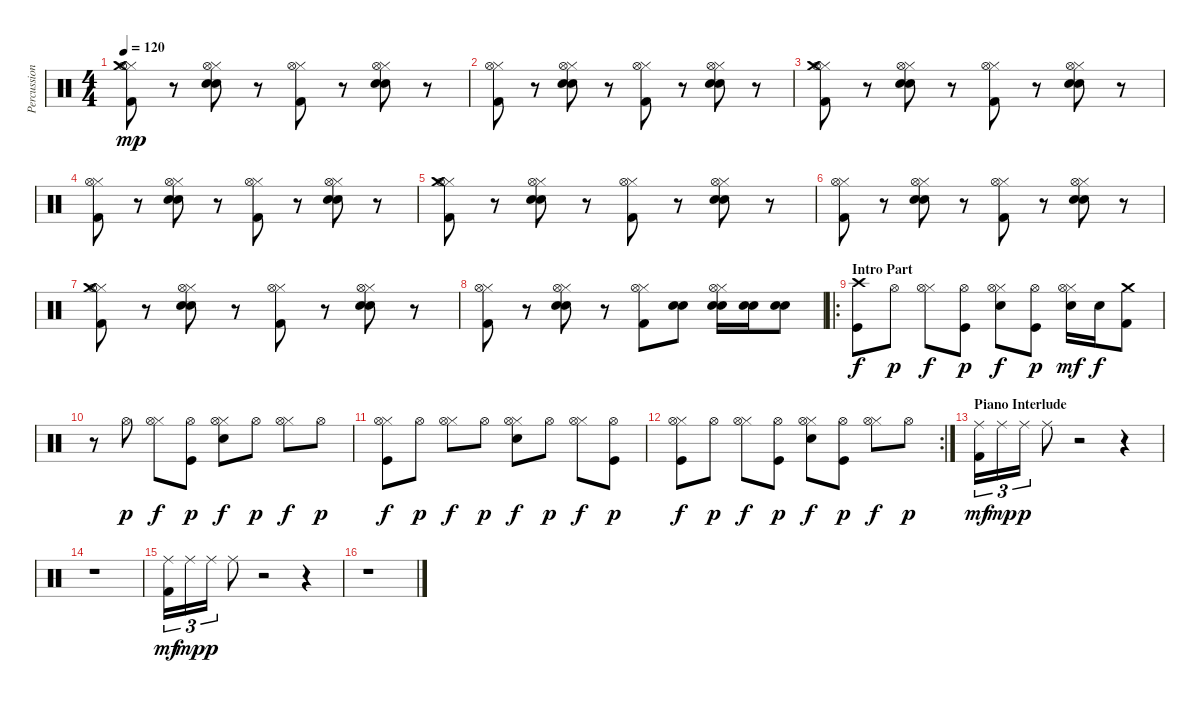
\track ("Percussion" "Percussion") {instrument percussion}
\staff {score}
\articulation defaults
\ts (4 4)
\tempo 120
\clef neutral
\ks c
("Hi-Hat (closed)" "Hi-Hat (open)" "Crash medium (hit)" "Kick (hit) 2").8{dy mp} r.8 ("Hi-Hat (closed)" "Hi-Hat (open)" "Electric Snare (hit)" "Snare (hit) 2").8 r.8 ("Hi-Hat (closed)" "Hi-Hat (open)" "Kick (hit) 2").8 r.8 ("Hi-Hat (closed)" "Hi-Hat (open)" "Electric Snare (hit)" "Snare (hit) 2").8 r.8 |
("Hi-Hat (closed)" "Hi-Hat (open)" "Kick (hit) 2").8 r.8 ("Hi-Hat (closed)" "Hi-Hat (open)" "Electric Snare (hit)" "Snare (hit) 2").8 r.8 ("Hi-Hat (closed)" "Hi-Hat (open)" "Kick (hit) 2").8 r.8 ("Hi-Hat (closed)" "Hi-Hat (open)" "Electric Snare (hit)" "Snare (hit) 2").8 r.8 |
("Hi-Hat (closed)" "Hi-Hat (open)" "Crash medium (hit)" "Kick (hit) 2").8 r.8 ("Hi-Hat (closed)" "Hi-Hat (open)" "Electric Snare (hit)" "Snare (hit) 2").8 r.8 ("Hi-Hat (closed)" "Hi-Hat (open)" "Kick (hit) 2").8 r.8 ("Hi-Hat (closed)" "Hi-Hat (open)" "Electric Snare (hit)" "Snare (hit) 2").8 r.8 |
("Hi-Hat (closed)" "Hi-Hat (open)" "Kick (hit) 2").8 r.8 ("Hi-Hat (closed)" "Hi-Hat (open)" "Electric Snare (hit)" "Snare (hit) 2").8 r.8 ("Hi-Hat (closed)" "Hi-Hat (open)" "Kick (hit) 2").8 r.8 ("Hi-Hat (closed)" "Hi-Hat (open)" "Electric Snare (hit)" "Snare (hit) 2").8 r.8 |
("Hi-Hat (closed)" "Hi-Hat (open)" "Crash medium (hit)" "Kick (hit) 2").8 r.8 ("Hi-Hat (closed)" "Hi-Hat (open)" "Electric Snare (hit)" "Snare (hit) 2").8 r.8 ("Hi-Hat (closed)" "Hi-Hat (open)" "Kick (hit) 2").8 r.8 ("Hi-Hat (closed)" "Hi-Hat (open)" "Electric Snare (hit)" "Snare (hit) 2").8 r.8 |
("Hi-Hat (closed)" "Hi-Hat (open)" "Kick (hit) 2").8 r.8 ("Hi-Hat (closed)" "Hi-Hat (open)" "Electric Snare (hit)" "Snare (hit) 2").8 r.8 ("Hi-Hat (closed)" "Hi-Hat (open)" "Kick (hit) 2").8 r.8 ("Hi-Hat (closed)" "Hi-Hat (open)" "Electric Snare (hit)" "Snare (hit) 2").8 r.8 |
("Hi-Hat (closed)" "Hi-Hat (open)" "Crash medium (hit)" "Kick (hit) 2").8 r.8 ("Hi-Hat (closed)" "Hi-Hat (open)" "Electric Snare (hit)" "Snare (hit) 2").8 r.8 ("Hi-Hat (closed)" "Hi-Hat (open)" "Kick (hit) 2").8 r.8 ("Hi-Hat (closed)" "Hi-Hat (open)" "Electric Snare (hit)" "Snare (hit) 2").8 r.8 |
("Hi-Hat (closed)" "Hi-Hat (open)" "Kick (hit) 2").8 r.8 ("Hi-Hat (closed)" "Hi-Hat (open)" "Electric Snare (hit)" "Snare (hit) 2").8 r.8 ("Hi-Hat (closed)" "Hi-Hat (open)" "Kick (hit) 2").8 ("Electric Snare (hit)" "Snare (hit) 2").8 ("Hi-Hat (closed)" "Hi-Hat (open)" "Electric Snare (hit)" "Snare (hit) 2").16 ("Electric Snare (hit)" "Snare (hit) 2").16 ("Electric Snare (hit)" "Snare (hit) 2").8 |
\ro
\section ("" "Intro Part")
("Crash high (hit)" "Kick (hit)").8{dy f} "Hi-Hat (open)".8{dy p} ("Hi-Hat (closed)" "Hi-Hat (open)").8{dy f} ("Hi-Hat (open)" "Kick (hit)").8{dy p} ("Hi-Hat (closed)" "Hi-Hat (open)" "Snare (hit) 2").8{dy f} ("Hi-Hat (open)" "Kick (hit)").8{dy p} ("Hi-Hat (closed)" "Hi-Hat (open)" "Snare (hit) 2").16{dy mf} "Snare (hit) 2".16{dy f} ("Crash medium (hit)" "Kick (hit) 2").8 |
r.8 "Hi-Hat (open)".8{dy p} ("Hi-Hat (closed)" "Hi-Hat (open)").8{dy f} ("Hi-Hat (open)" "Kick (hit)").8{dy p} ("Hi-Hat (closed)" "Hi-Hat (open)" "Snare (hit) 2").8{dy f} "Hi-Hat (open)".8{dy p} ("Hi-Hat (closed)" "Hi-Hat (open)").8{dy f} "Hi-Hat (open)".8{dy p} |
("Hi-Hat (closed)" "Hi-Hat (open)" "Kick (hit)").8{dy f} "Hi-Hat (open)".8{dy p} ("Hi-Hat (closed)" "Hi-Hat (open)").8{dy f} "Hi-Hat (open)".8{dy p} ("Hi-Hat (closed)" "Hi-Hat (open)" "Snare (hit) 2").8{dy f} "Hi-Hat (open)".8{dy p} ("Hi-Hat (closed)" "Hi-Hat (open)").8{dy f} ("Hi-Hat (open)" "Kick (hit)").8{dy p} |
\rc 2
("Hi-Hat (closed)" "Hi-Hat (open)" "Kick (hit)").8{dy f} "Hi-Hat (open)".8{dy p} ("Hi-Hat (closed)" "Hi-Hat (open)").8{dy f} ("Hi-Hat (open)" "Kick (hit)").8{dy p} ("Hi-Hat (closed)" "Hi-Hat (open)" "Snare (hit) 2").8{dy f} ("Hi-Hat (open)" "Kick (hit)").8{dy p} ("Hi-Hat (closed)" "Hi-Hat (open)").8{dy f} "Hi-Hat (open)".8{dy p} |
\section ("" "Piano Interlude")
("Ride (middle)" "Kick (hit) 2").16{tu (3 2) dy mf} "Ride (middle)".16{tu (3 2) dy mp} "Ride (middle)".16{tu (3 2) dy p} "Ride (middle)".8 r.2 r.4 |
r.1 |
("Ride (middle)" "Kick (hit) 2").16{tu (3 2) dy mf} "Ride (middle)".16{tu (3 2) dy mp} "Ride (middle)".16{tu (3 2) dy p} "Ride (middle)".8 r.2 r.4 |
r.1
